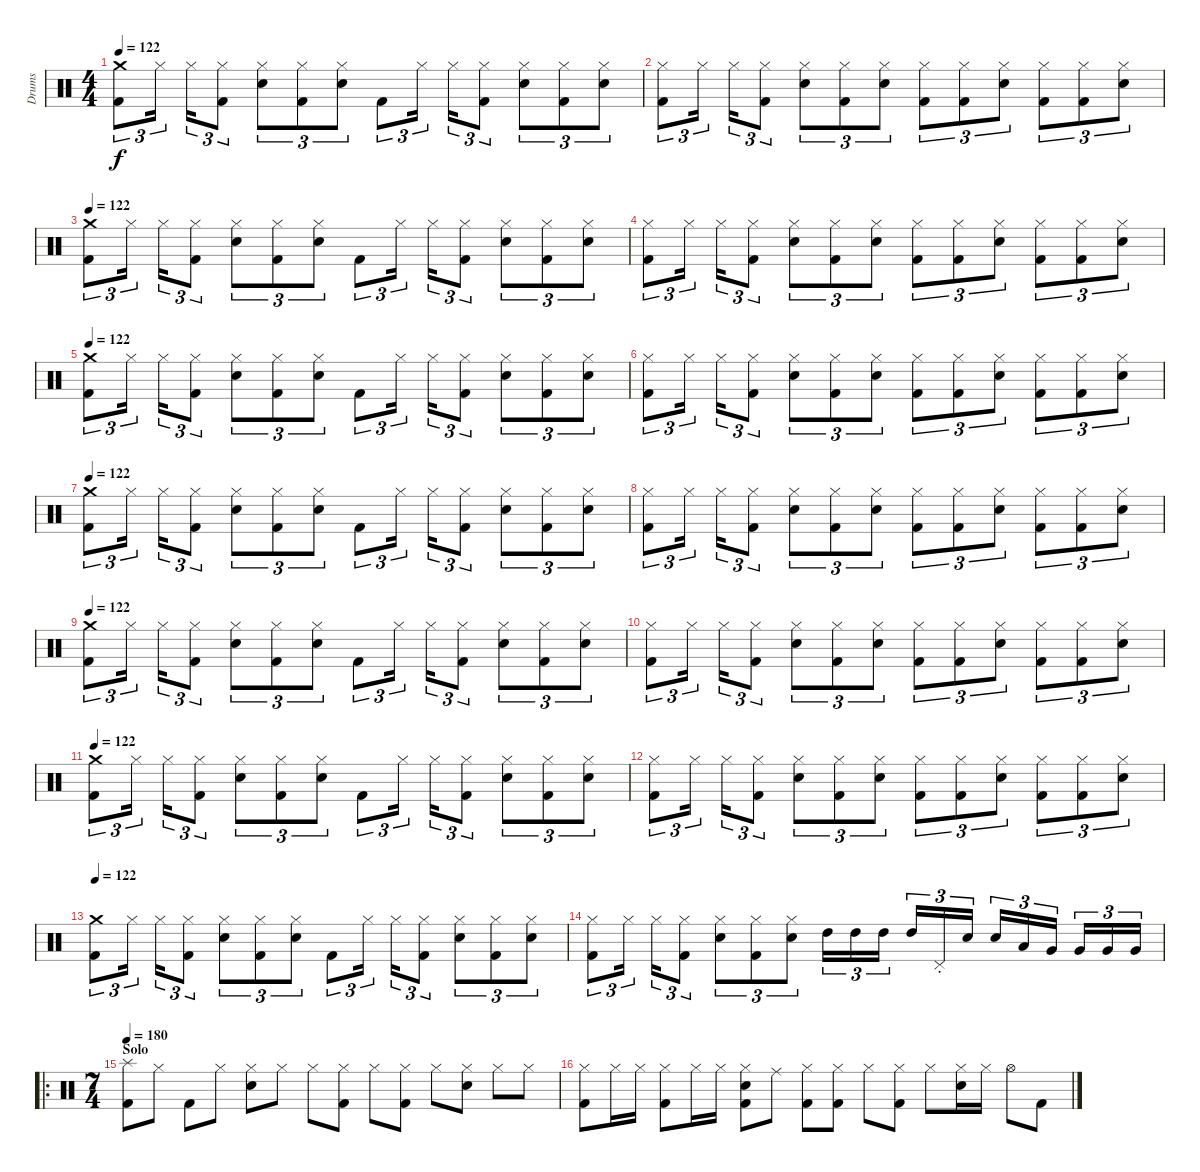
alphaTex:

\track ("Drums" "Drums") {instrument percussion}
\staff {score}
\articulation defaults
\ts (4 4)
\tempo 122
\clef neutral
\ks c
("Kick (hit) 2" "Crash medium (hit)").8{tu (3 2) dy f} "Hi-Hat (closed)".16{tu (3 2)} "Hi-Hat (closed)".16{tu (3 2)} ("Hi-Hat (closed)" "Kick (hit) 2").8{tu (3 2)} ("Hi-Hat (closed)" "Electric Snare (hit)").8{tu (3 2)} ("Hi-Hat (closed)" "Kick (hit) 2").8{tu (3 2)} ("Hi-Hat (closed)" "Electric Snare (hit)").8{tu (3 2)} "Kick (hit) 2".8{tu (3 2)} "Hi-Hat (closed)".16{tu (3 2)} "Hi-Hat (closed)".16{tu (3 2)} ("Hi-Hat (closed)" "Kick (hit) 2").8{tu (3 2)} ("Hi-Hat (closed)" "Electric Snare (hit)").8{tu (3 2)} ("Hi-Hat (closed)" "Kick (hit) 2").8{tu (3 2)} ("Hi-Hat (closed)" "Electric Snare (hit)").8{tu (3 2)} |
("Hi-Hat (closed)" "Kick (hit) 2").8{tu (3 2)} "Hi-Hat (closed)".16{tu (3 2)} "Hi-Hat (closed)".16{tu (3 2)} ("Hi-Hat (closed)" "Kick (hit) 2").8{tu (3 2)} ("Hi-Hat (closed)" "Electric Snare (hit)").8{tu (3 2)} ("Hi-Hat (closed)" "Kick (hit) 2").8{tu (3 2)} ("Hi-Hat (closed)" "Electric Snare (hit)").8{tu (3 2)} ("Hi-Hat (closed)" "Kick (hit) 2").8{tu (3 2)} ("Hi-Hat (closed)" "Kick (hit) 2").8{tu (3 2)} ("Hi-Hat (closed)" "Electric Snare (hit)").8{tu (3 2)} ("Hi-Hat (closed)" "Kick (hit) 2").8{tu (3 2)} ("Hi-Hat (closed)" "Kick (hit) 2").8{tu (3 2)} ("Hi-Hat (closed)" "Electric Snare (hit)").8{tu (3 2)} |
\tempo 122
("Kick (hit) 2" "Crash medium (hit)").8{tu (3 2)} "Hi-Hat (closed)".16{tu (3 2)} "Hi-Hat (closed)".16{tu (3 2)} ("Hi-Hat (closed)" "Kick (hit) 2").8{tu (3 2)} ("Hi-Hat (closed)" "Electric Snare (hit)").8{tu (3 2)} ("Hi-Hat (closed)" "Kick (hit) 2").8{tu (3 2)} ("Hi-Hat (closed)" "Electric Snare (hit)").8{tu (3 2)} "Kick (hit) 2".8{tu (3 2)} "Hi-Hat (closed)".16{tu (3 2)} "Hi-Hat (closed)".16{tu (3 2)} ("Hi-Hat (closed)" "Kick (hit) 2").8{tu (3 2)} ("Hi-Hat (closed)" "Electric Snare (hit)").8{tu (3 2)} ("Hi-Hat (closed)" "Kick (hit) 2").8{tu (3 2)} ("Hi-Hat (closed)" "Electric Snare (hit)").8{tu (3 2)} |
("Hi-Hat (closed)" "Kick (hit) 2").8{tu (3 2)} "Hi-Hat (closed)".16{tu (3 2)} "Hi-Hat (closed)".16{tu (3 2)} ("Hi-Hat (closed)" "Kick (hit) 2").8{tu (3 2)} ("Hi-Hat (closed)" "Electric Snare (hit)").8{tu (3 2)} ("Hi-Hat (closed)" "Kick (hit) 2").8{tu (3 2)} ("Hi-Hat (closed)" "Electric Snare (hit)").8{tu (3 2)} ("Hi-Hat (closed)" "Kick (hit) 2").8{tu (3 2)} ("Hi-Hat (closed)" "Kick (hit) 2").8{tu (3 2)} ("Hi-Hat (closed)" "Electric Snare (hit)").8{tu (3 2)} ("Hi-Hat (closed)" "Kick (hit) 2").8{tu (3 2)} ("Hi-Hat (closed)" "Kick (hit) 2").8{tu (3 2)} ("Hi-Hat (closed)" "Electric Snare (hit)").8{tu (3 2)} |
\tempo 122
("Kick (hit) 2" "Crash medium (hit)").8{tu (3 2)} "Hi-Hat (closed)".16{tu (3 2)} "Hi-Hat (closed)".16{tu (3 2)} ("Hi-Hat (closed)" "Kick (hit) 2").8{tu (3 2)} ("Hi-Hat (closed)" "Electric Snare (hit)").8{tu (3 2)} ("Hi-Hat (closed)" "Kick (hit) 2").8{tu (3 2)} ("Hi-Hat (closed)" "Electric Snare (hit)").8{tu (3 2)} "Kick (hit) 2".8{tu (3 2)} "Hi-Hat (closed)".16{tu (3 2)} "Hi-Hat (closed)".16{tu (3 2)} ("Hi-Hat (closed)" "Kick (hit) 2").8{tu (3 2)} ("Hi-Hat (closed)" "Electric Snare (hit)").8{tu (3 2)} ("Hi-Hat (closed)" "Kick (hit) 2").8{tu (3 2)} ("Hi-Hat (closed)" "Electric Snare (hit)").8{tu (3 2)} |
("Hi-Hat (closed)" "Kick (hit) 2").8{tu (3 2)} "Hi-Hat (closed)".16{tu (3 2)} "Hi-Hat (closed)".16{tu (3 2)} ("Hi-Hat (closed)" "Kick (hit) 2").8{tu (3 2)} ("Hi-Hat (closed)" "Electric Snare (hit)").8{tu (3 2)} ("Hi-Hat (closed)" "Kick (hit) 2").8{tu (3 2)} ("Hi-Hat (closed)" "Electric Snare (hit)").8{tu (3 2)} ("Hi-Hat (closed)" "Kick (hit) 2").8{tu (3 2)} ("Hi-Hat (closed)" "Kick (hit) 2").8{tu (3 2)} ("Hi-Hat (closed)" "Electric Snare (hit)").8{tu (3 2)} ("Hi-Hat (closed)" "Kick (hit) 2").8{tu (3 2)} ("Hi-Hat (closed)" "Kick (hit) 2").8{tu (3 2)} ("Hi-Hat (closed)" "Electric Snare (hit)").8{tu (3 2)} |
\tempo 122
("Kick (hit) 2" "Crash medium (hit)").8{tu (3 2)} "Hi-Hat (closed)".16{tu (3 2)} "Hi-Hat (closed)".16{tu (3 2)} ("Hi-Hat (closed)" "Kick (hit) 2").8{tu (3 2)} ("Hi-Hat (closed)" "Electric Snare (hit)").8{tu (3 2)} ("Hi-Hat (closed)" "Kick (hit) 2").8{tu (3 2)} ("Hi-Hat (closed)" "Electric Snare (hit)").8{tu (3 2)} "Kick (hit) 2".8{tu (3 2)} "Hi-Hat (closed)".16{tu (3 2)} "Hi-Hat (closed)".16{tu (3 2)} ("Hi-Hat (closed)" "Kick (hit) 2").8{tu (3 2)} ("Hi-Hat (closed)" "Electric Snare (hit)").8{tu (3 2)} ("Hi-Hat (closed)" "Kick (hit) 2").8{tu (3 2)} ("Hi-Hat (closed)" "Electric Snare (hit)").8{tu (3 2)} |
("Hi-Hat (closed)" "Kick (hit) 2").8{tu (3 2)} "Hi-Hat (closed)".16{tu (3 2)} "Hi-Hat (closed)".16{tu (3 2)} ("Hi-Hat (closed)" "Kick (hit) 2").8{tu (3 2)} ("Hi-Hat (closed)" "Electric Snare (hit)").8{tu (3 2)} ("Hi-Hat (closed)" "Kick (hit) 2").8{tu (3 2)} ("Hi-Hat (closed)" "Electric Snare (hit)").8{tu (3 2)} ("Hi-Hat (closed)" "Kick (hit) 2").8{tu (3 2)} ("Hi-Hat (closed)" "Kick (hit) 2").8{tu (3 2)} ("Hi-Hat (closed)" "Electric Snare (hit)").8{tu (3 2)} ("Hi-Hat (closed)" "Kick (hit) 2").8{tu (3 2)} ("Hi-Hat (closed)" "Kick (hit) 2").8{tu (3 2)} ("Hi-Hat (closed)" "Electric Snare (hit)").8{tu (3 2)} |
\tempo 122
("Kick (hit) 2" "Crash medium (hit)").8{tu (3 2)} "Hi-Hat (closed)".16{tu (3 2)} "Hi-Hat (closed)".16{tu (3 2)} ("Hi-Hat (closed)" "Kick (hit) 2").8{tu (3 2)} ("Hi-Hat (closed)" "Electric Snare (hit)").8{tu (3 2)} ("Hi-Hat (closed)" "Kick (hit) 2").8{tu (3 2)} ("Hi-Hat (closed)" "Electric Snare (hit)").8{tu (3 2)} "Kick (hit) 2".8{tu (3 2)} "Hi-Hat (closed)".16{tu (3 2)} "Hi-Hat (closed)".16{tu (3 2)} ("Hi-Hat (closed)" "Kick (hit) 2").8{tu (3 2)} ("Hi-Hat (closed)" "Electric Snare (hit)").8{tu (3 2)} ("Hi-Hat (closed)" "Kick (hit) 2").8{tu (3 2)} ("Hi-Hat (closed)" "Electric Snare (hit)").8{tu (3 2)} |
("Hi-Hat (closed)" "Kick (hit) 2").8{tu (3 2)} "Hi-Hat (closed)".16{tu (3 2)} "Hi-Hat (closed)".16{tu (3 2)} ("Hi-Hat (closed)" "Kick (hit) 2").8{tu (3 2)} ("Hi-Hat (closed)" "Electric Snare (hit)").8{tu (3 2)} ("Hi-Hat (closed)" "Kick (hit) 2").8{tu (3 2)} ("Hi-Hat (closed)" "Electric Snare (hit)").8{tu (3 2)} ("Hi-Hat (closed)" "Kick (hit) 2").8{tu (3 2)} ("Hi-Hat (closed)" "Kick (hit) 2").8{tu (3 2)} ("Hi-Hat (closed)" "Electric Snare (hit)").8{tu (3 2)} ("Hi-Hat (closed)" "Kick (hit) 2").8{tu (3 2)} ("Hi-Hat (closed)" "Kick (hit) 2").8{tu (3 2)} ("Hi-Hat (closed)" "Electric Snare (hit)").8{tu (3 2)} |
\tempo 122
("Kick (hit) 2" "Crash medium (hit)").8{tu (3 2)} "Hi-Hat (closed)".16{tu (3 2)} "Hi-Hat (closed)".16{tu (3 2)} ("Hi-Hat (closed)" "Kick (hit) 2").8{tu (3 2)} ("Hi-Hat (closed)" "Electric Snare (hit)").8{tu (3 2)} ("Hi-Hat (closed)" "Kick (hit) 2").8{tu (3 2)} ("Hi-Hat (closed)" "Electric Snare (hit)").8{tu (3 2)} "Kick (hit) 2".8{tu (3 2)} "Hi-Hat (closed)".16{tu (3 2)} "Hi-Hat (closed)".16{tu (3 2)} ("Hi-Hat (closed)" "Kick (hit) 2").8{tu (3 2)} ("Hi-Hat (closed)" "Electric Snare (hit)").8{tu (3 2)} ("Hi-Hat (closed)" "Kick (hit) 2").8{tu (3 2)} ("Hi-Hat (closed)" "Electric Snare (hit)").8{tu (3 2)} |
("Hi-Hat (closed)" "Kick (hit) 2").8{tu (3 2)} "Hi-Hat (closed)".16{tu (3 2)} "Hi-Hat (closed)".16{tu (3 2)} ("Hi-Hat (closed)" "Kick (hit) 2").8{tu (3 2)} ("Hi-Hat (closed)" "Electric Snare (hit)").8{tu (3 2)} ("Hi-Hat (closed)" "Kick (hit) 2").8{tu (3 2)} ("Hi-Hat (closed)" "Electric Snare (hit)").8{tu (3 2)} ("Hi-Hat (closed)" "Kick (hit) 2").8{tu (3 2)} ("Hi-Hat (closed)" "Kick (hit) 2").8{tu (3 2)} ("Hi-Hat (closed)" "Electric Snare (hit)").8{tu (3 2)} ("Hi-Hat (closed)" "Kick (hit) 2").8{tu (3 2)} ("Hi-Hat (closed)" "Kick (hit) 2").8{tu (3 2)} ("Hi-Hat (closed)" "Electric Snare (hit)").8{tu (3 2)} |
\tempo 122
("Kick (hit) 2" "Crash medium (hit)").8{tu (3 2)} "Hi-Hat (closed)".16{tu (3 2)} "Hi-Hat (closed)".16{tu (3 2)} ("Hi-Hat (closed)" "Kick (hit) 2").8{tu (3 2)} ("Hi-Hat (closed)" "Electric Snare (hit)").8{tu (3 2)} ("Hi-Hat (closed)" "Kick (hit) 2").8{tu (3 2)} ("Hi-Hat (closed)" "Electric Snare (hit)").8{tu (3 2)} "Kick (hit) 2".8{tu (3 2)} "Hi-Hat (closed)".16{tu (3 2)} "Hi-Hat (closed)".16{tu (3 2)} ("Hi-Hat (closed)" "Kick (hit) 2").8{tu (3 2)} ("Hi-Hat (closed)" "Electric Snare (hit)").8{tu (3 2)} ("Hi-Hat (closed)" "Kick (hit) 2").8{tu (3 2)} ("Hi-Hat (closed)" "Electric Snare (hit)").8{tu (3 2)} |
("Hi-Hat (closed)" "Kick (hit) 2").8{tu (3 2)} "Hi-Hat (closed)".16{tu (3 2)} "Hi-Hat (closed)".16{tu (3 2)} ("Hi-Hat (closed)" "Kick (hit) 2").8{tu (3 2)} ("Hi-Hat (closed)" "Electric Snare (hit)").8{tu (3 2)} ("Hi-Hat (closed)" "Kick (hit) 2").8{tu (3 2)} ("Hi-Hat (closed)" "Electric Snare (hit)").8{tu (3 2)} "High Tom (hit)".16{tu (3 2)} "High Tom (hit)".16{tu (3 2) balance 4} "High Tom (hit)".16{tu (3 2)} "High Tom (hit)".16{tu (3 2)} "Pedal Hi-Hat (hit)"{st}.16{tu (3 2)} "Electric Snare (hit)".16{tu (3 2) balance 8} "Electric Snare (hit)".16{tu (3 2)} "Low Floor Tom (hit)".16{tu (3 2)} "Very Low Tom (hit)".16{tu (3 2) balance 11} "Very Low Tom (hit)".16{tu (3 2)} "Very Low Tom (hit)".16{tu (3 2)} "Very Low Tom (hit)".16{tu (3 2)} |
\ro
\ts (7 4)
\section ("" "Solo")
\tempo 180
("Splash (hit)" "Kick (hit) 2").8 "Hi-Hat (closed)".8 "Kick (hit) 2".8 "Hi-Hat (closed)".8 ("Hi-Hat (closed)" "Electric Snare (hit)").8 "Hi-Hat (closed)".8 "Hi-Hat (closed)".8 ("Hi-Hat (closed)" "Kick (hit) 2").8 "Hi-Hat (closed)".8 ("Hi-Hat (closed)" "Kick (hit) 2").8 "Hi-Hat (closed)".8 ("Hi-Hat (closed)" "Electric Snare (hit)").8 "Hi-Hat (closed)".8 "Hi-Hat (closed)".8 |
("Hi-Hat (closed)" "Kick (hit) 2").8 "Hi-Hat (closed)".16 "Hi-Hat (closed)".16 ("Hi-Hat (closed)" "Kick (hit) 2").8 "Hi-Hat (closed)".16 "Hi-Hat (closed)".16 ("Hi-Hat (closed)" "Electric Snare (hit)" "Kick (hit) 2").8 "Ride (middle)".8 ("Hi-Hat (closed)" "Kick (hit) 2").8 ("Hi-Hat (closed)" "Kick (hit) 2").8 "Hi-Hat (closed)".8 ("Hi-Hat (closed)" "Kick (hit) 2").8 "Hi-Hat (closed)".8 ("Hi-Hat (closed)" "Electric Snare (hit)").16 "Hi-Hat (closed)".16 "Hi-Hat (open)".8 "Kick (hit) 2".8
